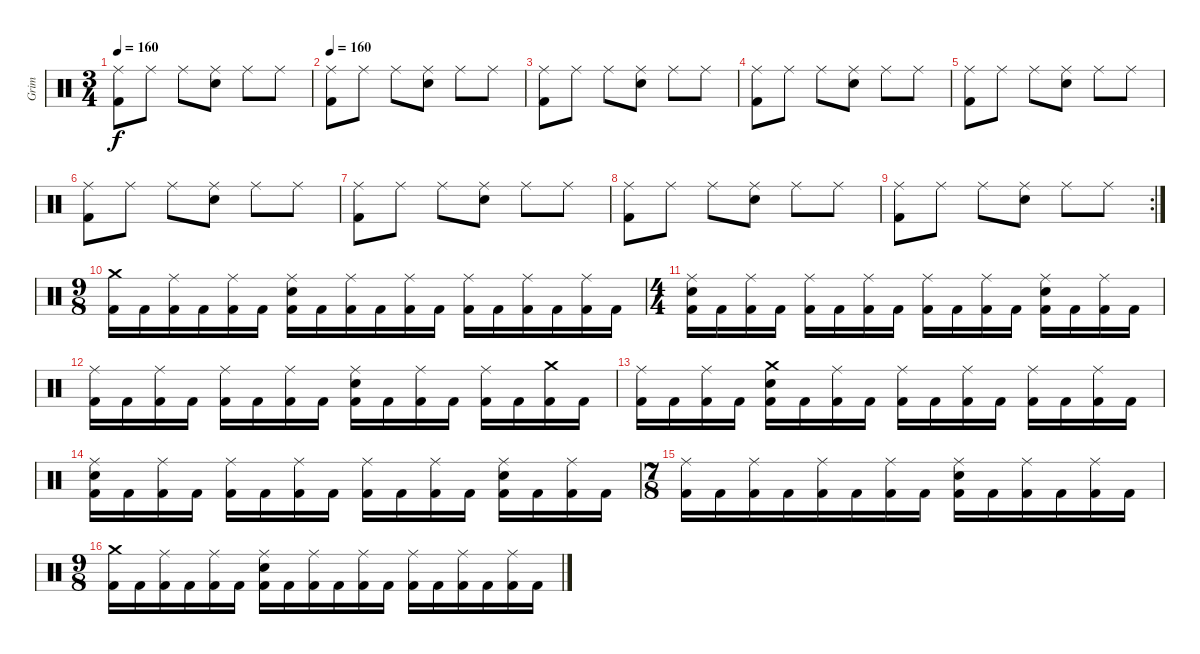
\track ("Grim" "Grim") {instrument percussion}
\staff {score}
\articulation defaults
\ts (3 4)
\tempo 160
\clef neutral
\ks c
("Kick (hit) 2" "Ride (middle)").8{dy f} "Ride (middle)".8 "Ride (middle)".8 ("Electric Snare (hit)" "Ride (middle)").8 "Ride (middle)".8 "Ride (middle)".8 |
\tempo 160
("Kick (hit) 2" "Ride (middle)").8 "Ride (middle)".8 "Ride (middle)".8 ("Electric Snare (hit)" "Ride (middle)").8 "Ride (middle)".8 "Ride (middle)".8 |
("Kick (hit) 2" "Ride (middle)").8 "Ride (middle)".8 "Ride (middle)".8 ("Electric Snare (hit)" "Ride (middle)").8 "Ride (middle)".8 "Ride (middle)".8 |
("Kick (hit) 2" "Ride (middle)").8 "Ride (middle)".8 "Ride (middle)".8 ("Electric Snare (hit)" "Ride (middle)").8 "Ride (middle)".8 "Ride (middle)".8 |
("Kick (hit) 2" "Ride (middle)").8 "Ride (middle)".8 "Ride (middle)".8 ("Electric Snare (hit)" "Ride (middle)").8 "Ride (middle)".8 "Ride (middle)".8 |
("Kick (hit) 2" "Ride (middle)").8 "Ride (middle)".8 "Ride (middle)".8 ("Electric Snare (hit)" "Ride (middle)").8 "Ride (middle)".8 "Ride (middle)".8 |
("Kick (hit) 2" "Ride (middle)").8 "Ride (middle)".8 "Ride (middle)".8 ("Electric Snare (hit)" "Ride (middle)").8 "Ride (middle)".8 "Ride (middle)".8 |
("Kick (hit) 2" "Ride (middle)").8 "Ride (middle)".8 "Ride (middle)".8 ("Electric Snare (hit)" "Ride (middle)").8 "Ride (middle)".8 "Ride (middle)".8 |
\rc 2
("Kick (hit) 2" "Ride (middle)").8 "Ride (middle)".8 "Ride (middle)".8 ("Electric Snare (hit)" "Ride (middle)").8 "Ride (middle)".8 "Ride (middle)".8 |
\ts (9 8)
("Kick (hit) 2" "Crash medium (hit)").16 "Kick (hit) 2".16 ("Kick (hit) 2" "Ride (middle)").16 "Kick (hit) 2".16 ("Kick (hit) 2" "Ride (middle)").16 "Kick (hit) 2".16 ("Kick (hit) 2" "Electric Snare (hit)" "Ride (middle)").16 "Kick (hit) 2".16 ("Kick (hit) 2" "Ride (middle)").16 "Kick (hit) 2".16 ("Kick (hit) 2" "Ride (middle)").16 "Kick (hit) 2".16 ("Kick (hit) 2" "Ride (middle)").16 "Kick (hit) 2".16 ("Kick (hit) 2" "Ride (middle)").16 "Kick (hit) 2".16 ("Kick (hit) 2" "Ride (middle)").16 "Kick (hit) 2".16 |
\ts (4 4)
("Kick (hit) 2" "Electric Snare (hit)" "Ride (middle)").16 "Kick (hit) 2".16 ("Kick (hit) 2" "Ride (middle)").16 "Kick (hit) 2".16 ("Kick (hit) 2" "Ride (middle)").16 "Kick (hit) 2".16 ("Kick (hit) 2" "Ride (middle)").16 "Kick (hit) 2".16 ("Kick (hit) 2" "Ride (middle)").16 "Kick (hit) 2".16 ("Kick (hit) 2" "Ride (middle)").16 "Kick (hit) 2".16 ("Kick (hit) 2" "Electric Snare (hit)" "Ride (middle)").16 "Kick (hit) 2".16 ("Kick (hit) 2" "Ride (middle)").16 "Kick (hit) 2".16 |
("Kick (hit) 2" "Ride (middle)").16 "Kick (hit) 2".16 ("Kick (hit) 2" "Ride (middle)").16 "Kick (hit) 2".16 ("Kick (hit) 2" "Ride (middle)").16 "Kick (hit) 2".16 ("Kick (hit) 2" "Ride (middle)").16 "Kick (hit) 2".16 ("Kick (hit) 2" "Electric Snare (hit)" "Ride (middle)").16 "Kick (hit) 2".16 ("Kick (hit) 2" "Ride (middle)").16 "Kick (hit) 2".16 ("Kick (hit) 2" "Ride (middle)").16 "Kick (hit) 2".16 ("Kick (hit) 2" "Crash medium (hit)").16 "Kick (hit) 2".16 |
("Kick (hit) 2" "Ride (middle)").16 "Kick (hit) 2".16 ("Kick (hit) 2" "Ride (middle)").16 "Kick (hit) 2".16 ("Kick (hit) 2" "Electric Snare (hit)" "Crash medium (hit)").16 "Kick (hit) 2".16 ("Kick (hit) 2" "Ride (middle)").16 "Kick (hit) 2".16 ("Kick (hit) 2" "Ride (middle)").16 "Kick (hit) 2".16 ("Kick (hit) 2" "Ride (middle)").16 "Kick (hit) 2".16 ("Kick (hit) 2" "Ride (middle)").16 "Kick (hit) 2".16 ("Kick (hit) 2" "Ride (middle)").16 "Kick (hit) 2".16 |
("Kick (hit) 2" "Electric Snare (hit)" "Ride (middle)").16 "Kick (hit) 2".16 ("Kick (hit) 2" "Ride (middle)").16 "Kick (hit) 2".16 ("Kick (hit) 2" "Ride (middle)").16 "Kick (hit) 2".16 ("Kick (hit) 2" "Ride (middle)").16 "Kick (hit) 2".16 ("Kick (hit) 2" "Ride (middle)").16 "Kick (hit) 2".16 ("Kick (hit) 2" "Ride (middle)").16 "Kick (hit) 2".16 ("Kick (hit) 2" "Electric Snare (hit)" "Ride (middle)").16 "Kick (hit) 2".16 ("Kick (hit) 2" "Ride (middle)").16 "Kick (hit) 2".16 |
\ts (7 8)
("Kick (hit) 2" "Ride (middle)").16 "Kick (hit) 2".16 ("Kick (hit) 2" "Ride (middle)").16 "Kick (hit) 2".16 ("Kick (hit) 2" "Ride (middle)").16 "Kick (hit) 2".16 ("Kick (hit) 2" "Ride (middle)").16 "Kick (hit) 2".16 ("Kick (hit) 2" "Electric Snare (hit)" "Ride (middle)").16 "Kick (hit) 2".16 ("Kick (hit) 2" "Ride (middle)").16 "Kick (hit) 2".16 ("Kick (hit) 2" "Ride (middle)").16 "Kick (hit) 2".16 |
\ts (9 8)
("Kick (hit) 2" "Crash medium (hit)").16 "Kick (hit) 2".16 ("Kick (hit) 2" "Ride (middle)").16 "Kick (hit) 2".16 ("Kick (hit) 2" "Ride (middle)").16 "Kick (hit) 2".16 ("Kick (hit) 2" "Electric Snare (hit)" "Ride (middle)").16 "Kick (hit) 2".16 ("Kick (hit) 2" "Ride (middle)").16 "Kick (hit) 2".16 ("Kick (hit) 2" "Ride (middle)").16 "Kick (hit) 2".16 ("Kick (hit) 2" "Ride (middle)").16 "Kick (hit) 2".16 ("Kick (hit) 2" "Ride (middle)").16 "Kick (hit) 2".16 ("Kick (hit) 2" "Ride (middle)").16 "Kick (hit) 2".16
